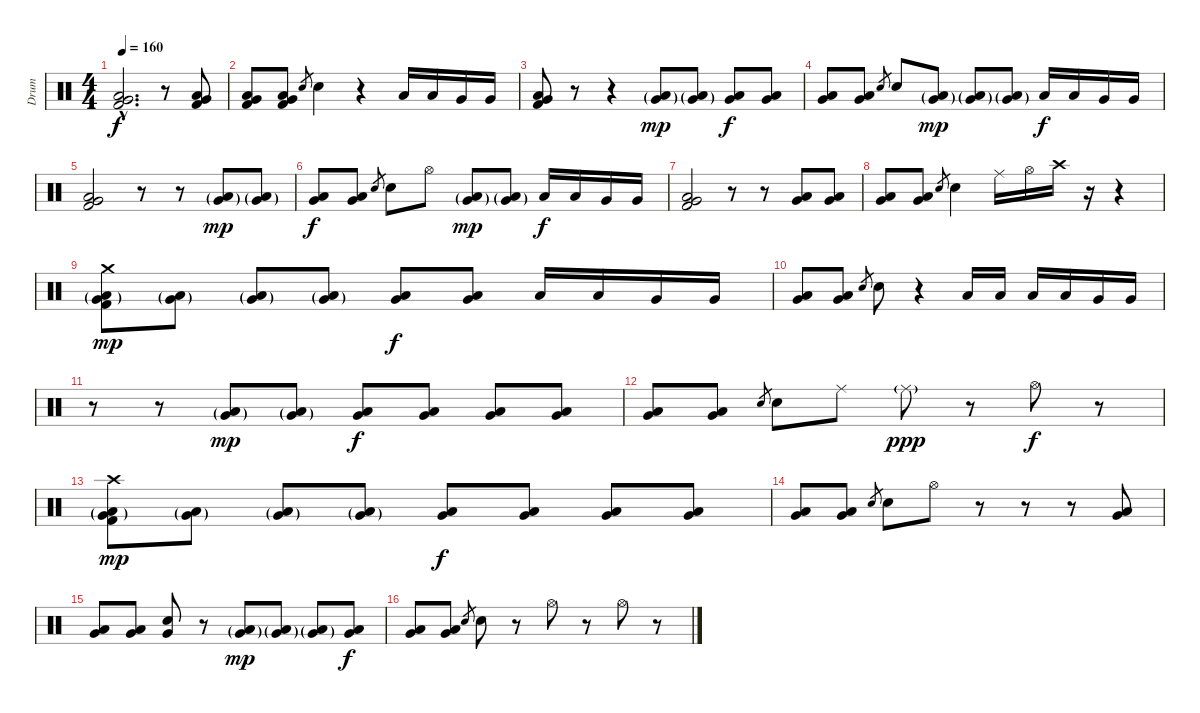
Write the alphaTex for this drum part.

\track ("Drum" "Drum") {instrument percussion}
\staff {score}
\articulation defaults
\ts (4 4)
\tempo 160
\clef neutral
\ks c
("Low Floor Tom (hit)"{hac} "Very Low Tom (hit)"{hac} "Kick (hit) 2"{hac}).2{d dy f} r.8 ("Low Floor Tom (hit)" "Very Low Tom (hit)" "Kick (hit) 2").8 |
("Low Floor Tom (hit)" "Very Low Tom (hit)" "Kick (hit) 2").8 ("Low Floor Tom (hit)" "Very Low Tom (hit)" "Kick (hit) 2").8 "Electric Snare (hit)".8{gr} "Electric Snare (hit)".4 r.4 "Low Tom (hit)".16 "Low Tom (hit)".16 "Very Low Tom (hit)".16 "Very Low Tom (hit)".16 |
("Low Floor Tom (hit)" "Very Low Tom (hit)" "Kick (hit) 2").8 r.8 r.4 ("Low Tom (hit)"{g} "Very Low Tom (hit)"{g}).8{dy mp} ("Low Tom (hit)"{g} "Very Low Tom (hit)"{g}).8 ("Low Tom (hit)" "Very Low Tom (hit)").8{dy f} ("Low Tom (hit)" "Very Low Tom (hit)").8 |
("Low Tom (hit)" "Very Low Tom (hit)").8 ("Low Tom (hit)" "Very Low Tom (hit)").8 "Electric Snare (hit)".8{gr} "Electric Snare (hit)".8 ("Low Tom (hit)"{g} "Very Low Tom (hit)"{g}).8{dy mp} ("Low Tom (hit)"{g} "Very Low Tom (hit)"{g}).8 ("Low Tom (hit)"{g} "Very Low Tom (hit)"{g}).8 "Low Tom (hit)".16{dy f} "Low Tom (hit)".16 "Very Low Tom (hit)".16 "Very Low Tom (hit)".16 |
("Low Floor Tom (hit)" "Very Low Tom (hit)" "Kick (hit) 2").2 r.8 r.8 ("Low Tom (hit)"{g} "Very Low Tom (hit)"{g}).8{dy mp} ("Low Tom (hit)"{g} "Very Low Tom (hit)"{g}).8 |
("Low Tom (hit)" "Very Low Tom (hit)").8{dy f} ("Low Tom (hit)" "Very Low Tom (hit)").8 "Electric Snare (hit)".8{gr} "Electric Snare (hit)".8 "Hi-Hat (open)".8 ("Low Tom (hit)"{g} "Very Low Tom (hit)"{g}).8{dy mp} ("Low Tom (hit)"{g} "Very Low Tom (hit)"{g}).8 "Low Tom (hit)".16{dy f} "Low Tom (hit)".16 "Very Low Tom (hit)".16 "Very Low Tom (hit)".16 |
("Low Floor Tom (hit)" "Very Low Tom (hit)" "Kick (hit) 2").2 r.8 r.8 ("Low Tom (hit)" "Very Low Tom (hit)").8 ("Low Tom (hit)" "Very Low Tom (hit)").8 |
("Low Tom (hit)" "Very Low Tom (hit)").8 ("Low Tom (hit)" "Very Low Tom (hit)").8 "Electric Snare (hit)".8{gr} "Electric Snare (hit)".4 "Ride (middle)".16 "Hi-Hat (open)".16 "Crash high (hit)".16 r.16 r.4 |
("Crash medium (hit)" "Low Tom (hit)"{g} "Very Low Tom (hit)"{g} "Kick (hit) 2").8{dy mp} ("Low Tom (hit)"{g} "Very Low Tom (hit)"{g}).8 ("Low Tom (hit)"{g} "Very Low Tom (hit)"{g}).8 ("Low Tom (hit)"{g} "Very Low Tom (hit)"{g}).8 ("Low Tom (hit)" "Very Low Tom (hit)").8{dy f} ("Low Tom (hit)" "Very Low Tom (hit)").8 "Low Tom (hit)".16 "Low Tom (hit)".16 "Very Low Tom (hit)".16 "Very Low Tom (hit)".16 |
("Low Tom (hit)" "Very Low Tom (hit)").8 ("Low Tom (hit)" "Very Low Tom (hit)").8 "Electric Snare (hit)".8{gr} "Electric Snare (hit)".8 r.4 "Low Tom (hit)".16 "Low Tom (hit)".16 "Low Tom (hit)".16 "Low Tom (hit)".16 "Very Low Tom (hit)".16 "Very Low Tom (hit)".16 |
r.8 r.8 ("Low Tom (hit)"{g} "Very Low Tom (hit)"{g}).8{dy mp} ("Low Tom (hit)"{g} "Very Low Tom (hit)"{g}).8 ("Low Tom (hit)" "Very Low Tom (hit)").8{dy f} ("Low Tom (hit)" "Very Low Tom (hit)").8 ("Low Tom (hit)" "Very Low Tom (hit)").8 ("Low Tom (hit)" "Very Low Tom (hit)").8 |
("Low Tom (hit)" "Very Low Tom (hit)").8 ("Low Tom (hit)" "Very Low Tom (hit)").8 "Electric Snare (hit)".8{gr} "Electric Snare (hit)".8 "Ride (middle)".8 "Ride (middle)"{g}.8{dy ppp} r.8 "Hi-Hat (open)".8{dy f} r.8 |
("Crash high (hit)" "Low Tom (hit)"{g} "Very Low Tom (hit)"{g} "Kick (hit) 2").8{dy mp} ("Low Tom (hit)"{g} "Very Low Tom (hit)"{g}).8 ("Low Tom (hit)"{g} "Very Low Tom (hit)"{g}).8 ("Low Tom (hit)"{g} "Very Low Tom (hit)"{g}).8 ("Low Tom (hit)" "Very Low Tom (hit)").8{dy f} ("Low Tom (hit)" "Very Low Tom (hit)").8 ("Low Tom (hit)" "Very Low Tom (hit)").8 ("Low Tom (hit)" "Very Low Tom (hit)").8 |
("Low Tom (hit)" "Very Low Tom (hit)").8 ("Low Tom (hit)" "Very Low Tom (hit)").8 "Electric Snare (hit)".8{gr} "Electric Snare (hit)".8 "Hi-Hat (open)".8 r.8 r.8 r.8 ("Low Tom (hit)" "Very Low Tom (hit)").8 |
("Low Tom (hit)" "Very Low Tom (hit)").8 ("Low Tom (hit)" "Very Low Tom (hit)").8 ("Very Low Tom (hit)" "Electric Snare (hit)").8 r.8 ("Low Tom (hit)"{g} "Very Low Tom (hit)"{g}).8{dy mp} ("Low Tom (hit)"{g} "Very Low Tom (hit)"{g}).8 ("Low Tom (hit)"{g} "Very Low Tom (hit)"{g}).8 ("Low Tom (hit)" "Very Low Tom (hit)").8{dy f} |
("Low Tom (hit)" "Very Low Tom (hit)").8 ("Low Tom (hit)" "Very Low Tom (hit)").8 "Electric Snare (hit)".8{gr} "Electric Snare (hit)".8 r.8 "Hi-Hat (open)".8 r.8 "Hi-Hat (open)".8 r.8
